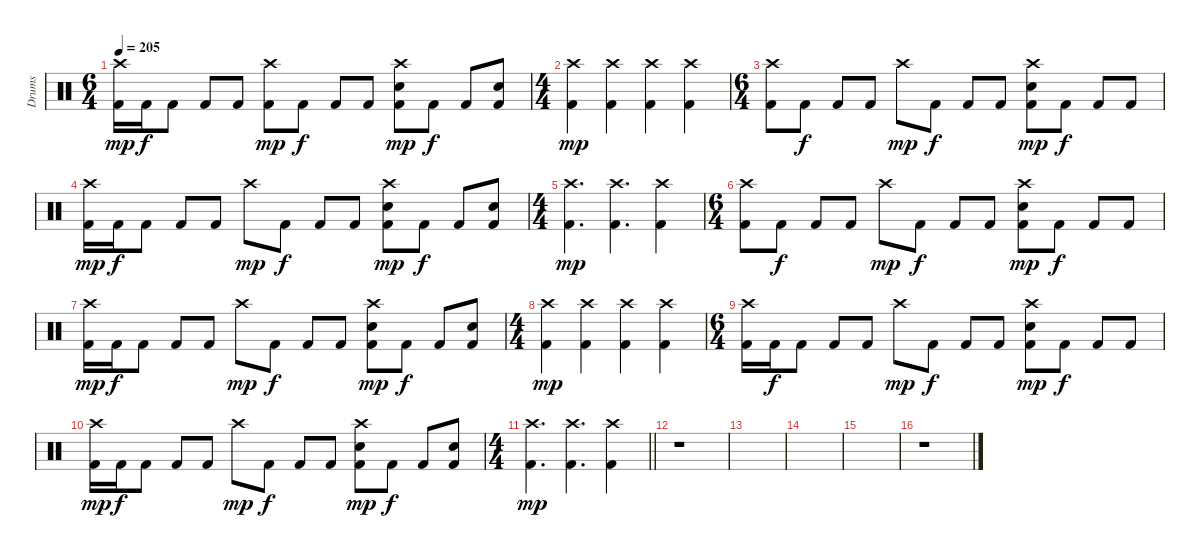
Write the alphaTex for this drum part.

\track ("Drums" "Drums") {instrument percussion}
\staff {score}
\articulation defaults
\ts (6 4)
\tempo 205
\clef neutral
\ks c
("Crash high (hit)" "Kick (hit) 2").16{dy mp} "Kick (hit) 2".16{dy f} "Kick (hit) 2".8 "Kick (hit) 2".8 "Kick (hit) 2".8 ("Crash high (hit)" "Kick (hit) 2").8{dy mp} "Kick (hit) 2".8{dy f} "Kick (hit) 2".8 "Kick (hit) 2".8 ("Crash high (hit)" "Electric Snare (hit)" "Kick (hit) 2").8{dy mp} "Kick (hit) 2".8{dy f} "Kick (hit) 2".8 ("Electric Snare (hit)" "Kick (hit) 2").8 |
\ts (4 4)
("Crash high (hit)" "Kick (hit) 2").4{dy mp} ("Crash high (hit)" "Kick (hit) 2").4 ("Crash high (hit)" "Kick (hit) 2").4 ("Crash high (hit)" "Kick (hit) 2").4 |
\ts (6 4)
("Crash high (hit)" "Kick (hit) 2").8 "Kick (hit) 2".8{dy f} "Kick (hit) 2".8 "Kick (hit) 2".8 "Crash high (hit)".8{dy mp} "Kick (hit) 2".8{dy f} "Kick (hit) 2".8 "Kick (hit) 2".8 ("Crash high (hit)" "Electric Snare (hit)" "Kick (hit) 2").8{dy mp} "Kick (hit) 2".8{dy f} "Kick (hit) 2".8 "Kick (hit) 2".8 |
("Crash high (hit)" "Kick (hit) 2").16{dy mp} "Kick (hit) 2".16{dy f} "Kick (hit) 2".8 "Kick (hit) 2".8 "Kick (hit) 2".8 "Crash high (hit)".8{dy mp} "Kick (hit) 2".8{dy f} "Kick (hit) 2".8 "Kick (hit) 2".8 ("Crash high (hit)" "Electric Snare (hit)" "Kick (hit) 2").8{dy mp} "Kick (hit) 2".8{dy f} "Kick (hit) 2".8 ("Electric Snare (hit)" "Kick (hit) 2").8 |
\ts (4 4)
("Crash high (hit)" "Kick (hit) 2").4{d dy mp} ("Crash high (hit)" "Kick (hit) 2").4{d} ("Crash high (hit)" "Kick (hit) 2").4 |
\ts (6 4)
("Crash high (hit)" "Kick (hit) 2").8 "Kick (hit) 2".8{dy f} "Kick (hit) 2".8 "Kick (hit) 2".8 "Crash high (hit)".8{dy mp} "Kick (hit) 2".8{dy f} "Kick (hit) 2".8 "Kick (hit) 2".8 ("Crash high (hit)" "Electric Snare (hit)" "Kick (hit) 2").8{dy mp} "Kick (hit) 2".8{dy f} "Kick (hit) 2".8 "Kick (hit) 2".8 |
("Crash high (hit)" "Kick (hit) 2").16{dy mp} "Kick (hit) 2".16{dy f} "Kick (hit) 2".8 "Kick (hit) 2".8 "Kick (hit) 2".8 "Crash high (hit)".8{dy mp} "Kick (hit) 2".8{dy f} "Kick (hit) 2".8 "Kick (hit) 2".8 ("Crash high (hit)" "Electric Snare (hit)" "Kick (hit) 2").8{dy mp} "Kick (hit) 2".8{dy f} "Kick (hit) 2".8 ("Electric Snare (hit)" "Kick (hit) 2").8 |
\ts (4 4)
("Crash high (hit)" "Kick (hit) 2").4{dy mp} ("Crash high (hit)" "Kick (hit) 2").4 ("Crash high (hit)" "Kick (hit) 2").4 ("Crash high (hit)" "Kick (hit) 2").4 |
\ts (6 4)
("Crash high (hit)" "Kick (hit) 2").16 "Kick (hit) 2".16{dy f} "Kick (hit) 2".8 "Kick (hit) 2".8 "Kick (hit) 2".8 "Crash high (hit)".8{dy mp} "Kick (hit) 2".8{dy f} "Kick (hit) 2".8 "Kick (hit) 2".8 ("Crash high (hit)" "Electric Snare (hit)" "Kick (hit) 2").8{dy mp} "Kick (hit) 2".8{dy f} "Kick (hit) 2".8 "Kick (hit) 2".8 |
("Crash high (hit)" "Kick (hit) 2").16{dy mp} "Kick (hit) 2".16{dy f} "Kick (hit) 2".8 "Kick (hit) 2".8 "Kick (hit) 2".8 "Crash high (hit)".8{dy mp} "Kick (hit) 2".8{dy f} "Kick (hit) 2".8 "Kick (hit) 2".8 ("Crash high (hit)" "Electric Snare (hit)" "Kick (hit) 2").8{dy mp} "Kick (hit) 2".8{dy f} "Kick (hit) 2".8 ("Electric Snare (hit)" "Kick (hit) 2").8 |
\ts (4 4)
\barLineRight lightlight
("Crash high (hit)" "Kick (hit) 2").4{d dy mp} ("Crash high (hit)" "Kick (hit) 2").4{d} ("Crash high (hit)" "Kick (hit) 2").4 |
r.1 |
|
|
|
r.1
